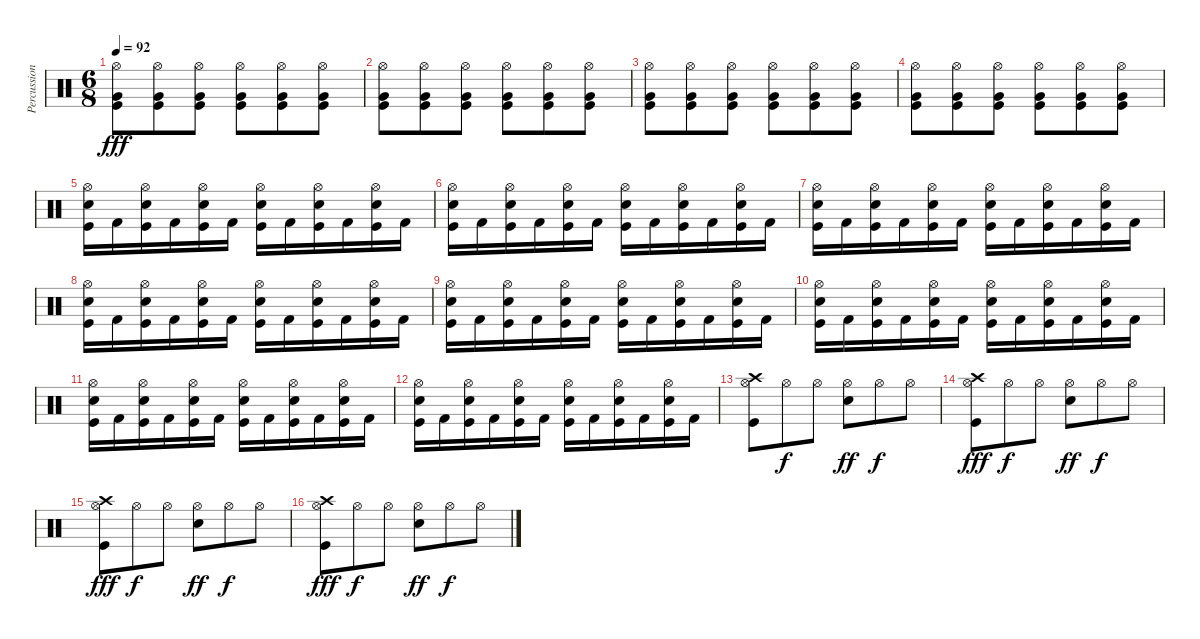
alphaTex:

\track ("Percussion" "Percussion") {instrument percussion}
\staff {score}
\articulation defaults
\ts (6 8)
\tempo 92
\clef neutral
\ks c
("Hi-Hat (open)" "Very Low Tom (hit)" "Kick (hit)").8{dy fff} ("Hi-Hat (open)" "Very Low Tom (hit)" "Kick (hit)").8 ("Hi-Hat (open)" "Very Low Tom (hit)" "Kick (hit)").8 ("Hi-Hat (open)" "Very Low Tom (hit)" "Kick (hit)").8 ("Hi-Hat (open)" "Very Low Tom (hit)" "Kick (hit)").8 ("Hi-Hat (open)" "Very Low Tom (hit)" "Kick (hit)").8 |
("Hi-Hat (open)" "Very Low Tom (hit)" "Kick (hit)").8 ("Hi-Hat (open)" "Very Low Tom (hit)" "Kick (hit)").8 ("Hi-Hat (open)" "Very Low Tom (hit)" "Kick (hit)").8 ("Hi-Hat (open)" "Very Low Tom (hit)" "Kick (hit)").8 ("Hi-Hat (open)" "Very Low Tom (hit)" "Kick (hit)").8 ("Hi-Hat (open)" "Very Low Tom (hit)" "Kick (hit)").8 |
("Hi-Hat (open)" "Very Low Tom (hit)" "Kick (hit)").8 ("Hi-Hat (open)" "Very Low Tom (hit)" "Kick (hit)").8 ("Hi-Hat (open)" "Very Low Tom (hit)" "Kick (hit)").8 ("Hi-Hat (open)" "Very Low Tom (hit)" "Kick (hit)").8 ("Hi-Hat (open)" "Very Low Tom (hit)" "Kick (hit)").8 ("Hi-Hat (open)" "Very Low Tom (hit)" "Kick (hit)").8 |
("Hi-Hat (open)" "Very Low Tom (hit)" "Kick (hit)").8 ("Hi-Hat (open)" "Very Low Tom (hit)" "Kick (hit)").8 ("Hi-Hat (open)" "Very Low Tom (hit)" "Kick (hit)").8 ("Hi-Hat (open)" "Very Low Tom (hit)" "Kick (hit)").8 ("Hi-Hat (open)" "Very Low Tom (hit)" "Kick (hit)").8 ("Hi-Hat (open)" "Very Low Tom (hit)" "Kick (hit)").8 |
("Hi-Hat (open)" "Snare (hit) 2" "Kick (hit)").16 "Kick (hit) 2".16 ("Hi-Hat (open)" "Snare (hit) 2" "Kick (hit)").16 "Kick (hit) 2".16 ("Hi-Hat (open)" "Snare (hit) 2" "Kick (hit)").16 "Kick (hit) 2".16 ("Hi-Hat (open)" "Snare (hit) 2" "Kick (hit)").16 "Kick (hit) 2".16 ("Hi-Hat (open)" "Snare (hit) 2" "Kick (hit)").16 "Kick (hit) 2".16 ("Hi-Hat (open)" "Snare (hit) 2" "Kick (hit)").16 "Kick (hit) 2".16 |
("Hi-Hat (open)" "Snare (hit) 2" "Kick (hit)").16 "Kick (hit) 2".16 ("Hi-Hat (open)" "Snare (hit) 2" "Kick (hit)").16 "Kick (hit) 2".16 ("Hi-Hat (open)" "Snare (hit) 2" "Kick (hit)").16 "Kick (hit) 2".16 ("Hi-Hat (open)" "Snare (hit) 2" "Kick (hit)").16 "Kick (hit) 2".16 ("Hi-Hat (open)" "Snare (hit) 2" "Kick (hit)").16 "Kick (hit) 2".16 ("Hi-Hat (open)" "Snare (hit) 2" "Kick (hit)").16 "Kick (hit) 2".16 |
("Hi-Hat (open)" "Snare (hit) 2" "Kick (hit)").16 "Kick (hit) 2".16 ("Hi-Hat (open)" "Snare (hit) 2" "Kick (hit)").16 "Kick (hit) 2".16 ("Hi-Hat (open)" "Snare (hit) 2" "Kick (hit)").16 "Kick (hit) 2".16 ("Hi-Hat (open)" "Snare (hit) 2" "Kick (hit)").16 "Kick (hit) 2".16 ("Hi-Hat (open)" "Snare (hit) 2" "Kick (hit)").16 "Kick (hit) 2".16 ("Hi-Hat (open)" "Snare (hit) 2" "Kick (hit)").16 "Kick (hit) 2".16 |
("Hi-Hat (open)" "Snare (hit) 2" "Kick (hit)").16 "Kick (hit) 2".16 ("Hi-Hat (open)" "Snare (hit) 2" "Kick (hit)").16 "Kick (hit) 2".16 ("Hi-Hat (open)" "Snare (hit) 2" "Kick (hit)").16 "Kick (hit) 2".16 ("Hi-Hat (open)" "Snare (hit) 2" "Kick (hit)").16 "Kick (hit) 2".16 ("Hi-Hat (open)" "Snare (hit) 2" "Kick (hit)").16 "Kick (hit) 2".16 ("Hi-Hat (open)" "Snare (hit) 2" "Kick (hit)").16 "Kick (hit) 2".16 |
("Hi-Hat (open)" "Snare (hit) 2" "Kick (hit)").16 "Kick (hit) 2".16 ("Hi-Hat (open)" "Snare (hit) 2" "Kick (hit)").16 "Kick (hit) 2".16 ("Hi-Hat (open)" "Snare (hit) 2" "Kick (hit)").16 "Kick (hit) 2".16 ("Hi-Hat (open)" "Snare (hit) 2" "Kick (hit)").16 "Kick (hit) 2".16 ("Hi-Hat (open)" "Snare (hit) 2" "Kick (hit)").16 "Kick (hit) 2".16 ("Hi-Hat (open)" "Snare (hit) 2" "Kick (hit)").16 "Kick (hit) 2".16 |
("Hi-Hat (open)" "Snare (hit) 2" "Kick (hit)").16 "Kick (hit) 2".16 ("Hi-Hat (open)" "Snare (hit) 2" "Kick (hit)").16 "Kick (hit) 2".16 ("Hi-Hat (open)" "Snare (hit) 2" "Kick (hit)").16 "Kick (hit) 2".16 ("Hi-Hat (open)" "Snare (hit) 2" "Kick (hit)").16 "Kick (hit) 2".16 ("Hi-Hat (open)" "Snare (hit) 2" "Kick (hit)").16 "Kick (hit) 2".16 ("Hi-Hat (open)" "Snare (hit) 2" "Kick (hit)").16 "Kick (hit) 2".16 |
("Hi-Hat (open)" "Snare (hit) 2" "Kick (hit)").16 "Kick (hit) 2".16 ("Hi-Hat (open)" "Snare (hit) 2" "Kick (hit)").16 "Kick (hit) 2".16 ("Hi-Hat (open)" "Snare (hit) 2" "Kick (hit)").16 "Kick (hit) 2".16 ("Hi-Hat (open)" "Snare (hit) 2" "Kick (hit)").16 "Kick (hit) 2".16 ("Hi-Hat (open)" "Snare (hit) 2" "Kick (hit)").16 "Kick (hit) 2".16 ("Hi-Hat (open)" "Snare (hit) 2" "Kick (hit)").16 "Kick (hit) 2".16 |
("Hi-Hat (open)" "Snare (hit) 2" "Kick (hit)").16 "Kick (hit) 2".16 ("Hi-Hat (open)" "Snare (hit) 2" "Kick (hit)").16 "Kick (hit) 2".16 ("Hi-Hat (open)" "Snare (hit) 2" "Kick (hit)").16 "Kick (hit) 2".16 ("Hi-Hat (open)" "Snare (hit) 2" "Kick (hit)").16 "Kick (hit) 2".16 ("Hi-Hat (open)" "Snare (hit) 2" "Kick (hit)").16 "Kick (hit) 2".16 ("Hi-Hat (open)" "Snare (hit) 2" "Kick (hit)").16 "Kick (hit) 2".16 |
("Crash high (hit)" "Hi-Hat (open)" "Kick (hit)").8 "Hi-Hat (open)".8{dy f} "Hi-Hat (open)".8 ("Hi-Hat (open)" "Snare (hit) 2").8{dy ff} "Hi-Hat (open)".8{dy f} "Hi-Hat (open)".8 |
("Crash high (hit)" "Hi-Hat (open)" "Kick (hit)").8{dy fff} "Hi-Hat (open)".8{dy f} "Hi-Hat (open)".8 ("Hi-Hat (open)" "Snare (hit) 2").8{dy ff} "Hi-Hat (open)".8{dy f} "Hi-Hat (open)".8 |
("Crash high (hit)" "Hi-Hat (open)" "Kick (hit)").8{dy fff} "Hi-Hat (open)".8{dy f} "Hi-Hat (open)".8 ("Hi-Hat (open)" "Snare (hit) 2").8{dy ff} "Hi-Hat (open)".8{dy f} "Hi-Hat (open)".8 |
("Crash high (hit)" "Hi-Hat (open)" "Kick (hit)").8{dy fff} "Hi-Hat (open)".8{dy f} "Hi-Hat (open)".8 ("Hi-Hat (open)" "Snare (hit) 2").8{dy ff} "Hi-Hat (open)".8{dy f} "Hi-Hat (open)".8
